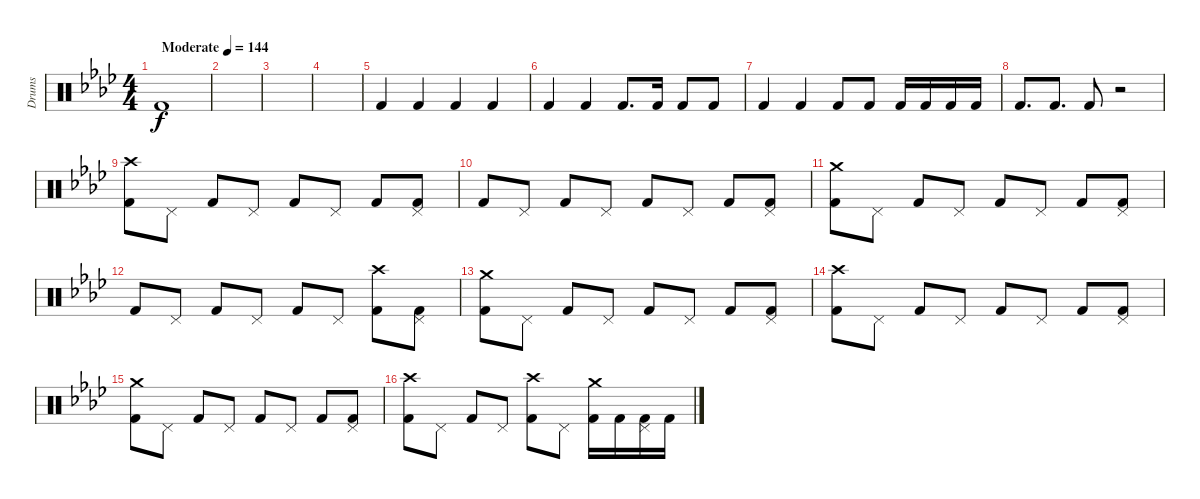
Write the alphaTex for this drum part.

\track ("Drums" "Drums") {instrument percussion}
\staff {score}
\articulation defaults
\ts (4 4)
\tempo (144 "Moderate")
\clef neutral
\ks ab "Kick (hit) 2".1{dy f}
|
|
|
|
"Kick (hit) 2".4 "Kick (hit) 2".4 "Kick (hit) 2".4 "Kick (hit) 2".4 |
"Kick (hit) 2".4 "Kick (hit) 2".4 "Kick (hit) 2".8{d} "Kick (hit) 2".16 "Kick (hit) 2".8 "Kick (hit) 2".8 |
"Kick (hit) 2".4 "Kick (hit) 2".4 "Kick (hit) 2".8 "Kick (hit) 2".8 "Kick (hit) 2".16 "Kick (hit) 2".16 "Kick (hit) 2".16 "Kick (hit) 2".16 |
"Kick (hit) 2".8{d} "Kick (hit) 2".8{d} "Kick (hit) 2".8 r.2 |
("Kick (hit) 2" "Crash high (hit)").8 "Pedal Hi-Hat (hit)".8 "Kick (hit) 2".8 "Pedal Hi-Hat (hit)".8 "Kick (hit) 2".8 "Pedal Hi-Hat (hit)".8 "Kick (hit) 2".8 ("Kick (hit) 2" "Pedal Hi-Hat (hit)").8 |
"Kick (hit) 2".8 "Pedal Hi-Hat (hit)".8 "Kick (hit) 2".8 "Pedal Hi-Hat (hit)".8 "Kick (hit) 2".8 "Pedal Hi-Hat (hit)".8 "Kick (hit) 2".8 ("Kick (hit) 2" "Pedal Hi-Hat (hit)").8 |
("Kick (hit) 2" "Crash medium (hit)").8 "Pedal Hi-Hat (hit)".8 "Kick (hit) 2".8 "Pedal Hi-Hat (hit)".8 "Kick (hit) 2".8 "Pedal Hi-Hat (hit)".8 "Kick (hit) 2".8 ("Kick (hit) 2" "Pedal Hi-Hat (hit)").8 |
"Kick (hit) 2".8 "Pedal Hi-Hat (hit)".8 "Kick (hit) 2".8 "Pedal Hi-Hat (hit)".8 "Kick (hit) 2".8 "Pedal Hi-Hat (hit)".8 ("Kick (hit) 2" "Crash high (hit)").8 ("Kick (hit) 2" "Pedal Hi-Hat (hit)").8 |
("Kick (hit) 2" "Crash medium (hit)").8 "Pedal Hi-Hat (hit)".8 "Kick (hit) 2".8 "Pedal Hi-Hat (hit)".8 "Kick (hit) 2".8 "Pedal Hi-Hat (hit)".8 "Kick (hit) 2".8 ("Kick (hit) 2" "Pedal Hi-Hat (hit)").8 |
("Kick (hit) 2" "Crash high (hit)").8 "Pedal Hi-Hat (hit)".8 "Kick (hit) 2".8 "Pedal Hi-Hat (hit)".8 "Kick (hit) 2".8 "Pedal Hi-Hat (hit)".8 "Kick (hit) 2".8 ("Kick (hit) 2" "Pedal Hi-Hat (hit)").8 |
("Kick (hit) 2" "Crash medium (hit)").8 "Pedal Hi-Hat (hit)".8 "Kick (hit) 2".8 "Pedal Hi-Hat (hit)".8 "Kick (hit) 2".8 "Pedal Hi-Hat (hit)".8 "Kick (hit) 2".8 ("Kick (hit) 2" "Pedal Hi-Hat (hit)").8 |
("Kick (hit) 2" "Crash high (hit)").8 "Pedal Hi-Hat (hit)".8 "Kick (hit) 2".8 "Pedal Hi-Hat (hit)".8 ("Kick (hit) 2" "Crash high (hit)").8 "Pedal Hi-Hat (hit)".8 ("Kick (hit) 2" "Crash medium (hit)").16 "Kick (hit) 2".16 ("Kick (hit) 2" "Pedal Hi-Hat (hit)").16 "Kick (hit) 2".16
